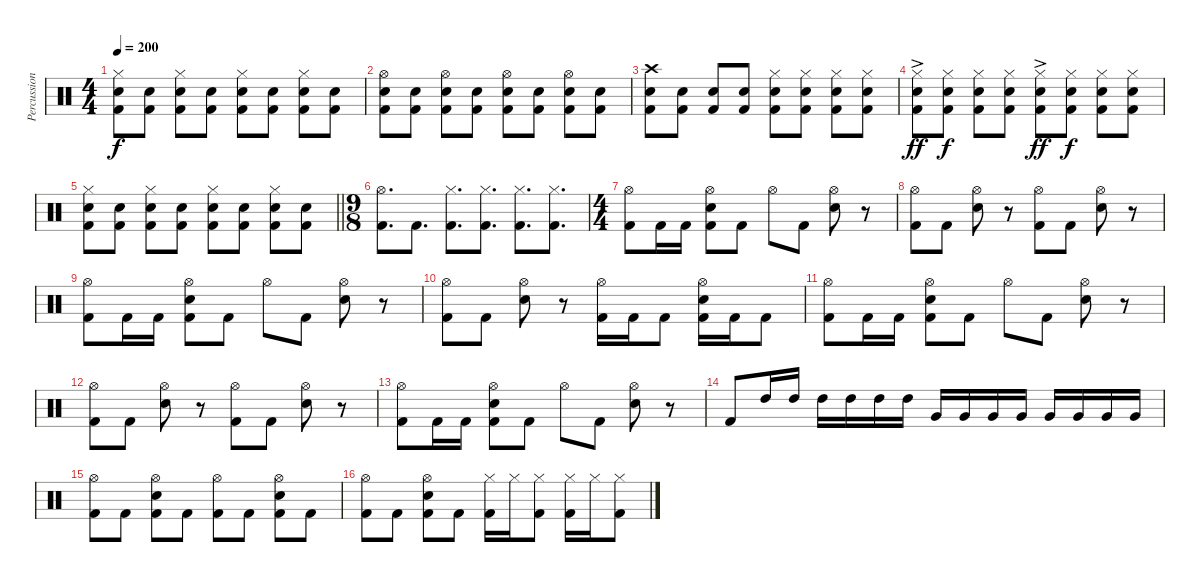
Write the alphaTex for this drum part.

\track ("Percussions" "Percussion") {instrument percussion}
\staff {score}
\articulation defaults
\ts (4 4)
\tempo 200
\clef neutral
\ks c
("Hi-Hat (closed)" "Electric Snare (hit)" "Kick (hit) 2").8{dy f} ("Electric Snare (hit)" "Kick (hit) 2").8 ("Hi-Hat (closed)" "Electric Snare (hit)" "Kick (hit) 2").8 ("Electric Snare (hit)" "Kick (hit) 2").8 ("Hi-Hat (closed)" "Electric Snare (hit)" "Kick (hit) 2").8 ("Electric Snare (hit)" "Kick (hit) 2").8 ("Hi-Hat (closed)" "Electric Snare (hit)" "Kick (hit) 2").8 ("Electric Snare (hit)" "Kick (hit) 2").8 |
("Hi-Hat (open)" "Electric Snare (hit)" "Kick (hit) 2").8 ("Electric Snare (hit)" "Kick (hit) 2").8 ("Hi-Hat (open)" "Electric Snare (hit)" "Kick (hit) 2").8 ("Electric Snare (hit)" "Kick (hit) 2").8 ("Hi-Hat (open)" "Electric Snare (hit)" "Kick (hit) 2").8 ("Electric Snare (hit)" "Kick (hit) 2").8 ("Hi-Hat (open)" "Electric Snare (hit)" "Kick (hit) 2").8 ("Electric Snare (hit)" "Kick (hit) 2").8 |
("Crash high (hit)" "Electric Snare (hit)" "Kick (hit) 2").8 ("Electric Snare (hit)" "Kick (hit) 2").8 ("Electric Snare (hit)" "Kick (hit) 2").8 ("Electric Snare (hit)" "Kick (hit) 2").8 ("Hi-Hat (closed)" "Electric Snare (hit)" "Kick (hit) 2").8 ("Hi-Hat (closed)" "Electric Snare (hit)" "Kick (hit) 2").8 ("Hi-Hat (closed)" "Electric Snare (hit)" "Kick (hit) 2").8 ("Hi-Hat (closed)" "Electric Snare (hit)" "Kick (hit) 2").8 |
("Hi-Hat (closed)"{ac} "Electric Snare (hit)" "Kick (hit) 2").8{dy ff} ("Hi-Hat (closed)" "Electric Snare (hit)" "Kick (hit) 2").8{dy f} ("Hi-Hat (closed)" "Electric Snare (hit)" "Kick (hit) 2").8 ("Hi-Hat (closed)" "Electric Snare (hit)" "Kick (hit) 2").8 ("Hi-Hat (closed)"{ac} "Electric Snare (hit)" "Kick (hit) 2").8{dy ff} ("Hi-Hat (closed)" "Electric Snare (hit)" "Kick (hit) 2").8{dy f} ("Hi-Hat (closed)" "Electric Snare (hit)" "Kick (hit) 2").8 ("Hi-Hat (closed)" "Electric Snare (hit)" "Kick (hit) 2").8 |
\barLineRight lightlight
("Hi-Hat (closed)" "Electric Snare (hit)" "Kick (hit) 2").8 ("Electric Snare (hit)" "Kick (hit) 2").8 ("Hi-Hat (closed)" "Electric Snare (hit)" "Kick (hit) 2").8 ("Electric Snare (hit)" "Kick (hit) 2").8 ("Hi-Hat (closed)" "Electric Snare (hit)" "Kick (hit) 2").8 ("Electric Snare (hit)" "Kick (hit) 2").8 ("Hi-Hat (closed)" "Electric Snare (hit)" "Kick (hit) 2").8 ("Electric Snare (hit)" "Kick (hit) 2").8 |
\ts (9 8)
("Hi-Hat (open)" "Kick (hit) 2").8{d} "Kick (hit) 2".8{d} ("Hi-Hat (closed)" "Kick (hit) 2").8{d} ("Hi-Hat (closed)" "Kick (hit) 2").8{d} ("Hi-Hat (closed)" "Kick (hit) 2").8{d} ("Hi-Hat (closed)" "Kick (hit) 2").8{d} |
\ts (4 4)
("Hi-Hat (open)" "Kick (hit) 2").8 "Kick (hit) 2".16 "Kick (hit) 2".16 ("Hi-Hat (open)" "Electric Snare (hit)" "Kick (hit) 2").8 "Kick (hit) 2".8 "Hi-Hat (open)".8 "Kick (hit) 2".8 ("Hi-Hat (open)" "Electric Snare (hit)").8 r.8 |
("Hi-Hat (open)" "Kick (hit) 2").8 "Kick (hit) 2".8 ("Hi-Hat (open)" "Electric Snare (hit)").8 r.8 ("Hi-Hat (open)" "Kick (hit) 2").8 "Kick (hit) 2".8 ("Hi-Hat (open)" "Electric Snare (hit)").8 r.8 |
("Hi-Hat (open)" "Kick (hit) 2").8 "Kick (hit) 2".16 "Kick (hit) 2".16 ("Hi-Hat (open)" "Electric Snare (hit)" "Kick (hit) 2").8 "Kick (hit) 2".8 "Hi-Hat (open)".8 "Kick (hit) 2".8 ("Hi-Hat (open)" "Electric Snare (hit)").8 r.8 |
("Hi-Hat (open)" "Kick (hit) 2").8 "Kick (hit) 2".8 ("Hi-Hat (open)" "Electric Snare (hit)").8 r.8 ("Hi-Hat (open)" "Kick (hit) 2").16 "Kick (hit) 2".16 "Kick (hit) 2".8 ("Hi-Hat (open)" "Electric Snare (hit)" "Kick (hit) 2").16 "Kick (hit) 2".16 "Kick (hit) 2".8 |
("Hi-Hat (open)" "Kick (hit) 2").8 "Kick (hit) 2".16 "Kick (hit) 2".16 ("Hi-Hat (open)" "Electric Snare (hit)" "Kick (hit) 2").8 "Kick (hit) 2".8 "Hi-Hat (open)".8 "Kick (hit) 2".8 ("Hi-Hat (open)" "Electric Snare (hit)").8 r.8 |
("Hi-Hat (open)" "Kick (hit) 2").8 "Kick (hit) 2".8 ("Hi-Hat (open)" "Electric Snare (hit)").8 r.8 ("Hi-Hat (open)" "Kick (hit) 2").8 "Kick (hit) 2".8 ("Hi-Hat (open)" "Electric Snare (hit)").8 r.8 |
("Hi-Hat (open)" "Kick (hit) 2").8 "Kick (hit) 2".16 "Kick (hit) 2".16 ("Hi-Hat (open)" "Electric Snare (hit)" "Kick (hit) 2").8 "Kick (hit) 2".8 "Hi-Hat (open)".8 "Kick (hit) 2".8 ("Hi-Hat (open)" "Electric Snare (hit)").8 r.8 |
"Kick (hit) 2".8 "High Tom (hit)".16 "High Tom (hit)".16 "High Tom (hit)".16 "High Tom (hit)".16 "High Tom (hit)".16 "High Tom (hit)".16 "Very Low Tom (hit)".16 "Very Low Tom (hit)".16 "Very Low Tom (hit)".16 "Very Low Tom (hit)".16 "Very Low Tom (hit)".16 "Very Low Tom (hit)".16 "Very Low Tom (hit)".16 "Very Low Tom (hit)".16 |
("Hi-Hat (open)" "Kick (hit) 2").8 "Kick (hit) 2".8 ("Hi-Hat (open)" "Electric Snare (hit)" "Kick (hit) 2").8 "Kick (hit) 2".8 ("Hi-Hat (open)" "Kick (hit) 2").8 "Kick (hit) 2".8 ("Hi-Hat (open)" "Electric Snare (hit)" "Kick (hit) 2").8 "Kick (hit) 2".8 |
("Hi-Hat (open)" "Kick (hit) 2").8 "Kick (hit) 2".8 ("Hi-Hat (open)" "Electric Snare (hit)" "Kick (hit) 2").8 "Kick (hit) 2".8 ("Hi-Hat (closed)" "Kick (hit) 2").16 "Hi-Hat (closed)".16 ("Hi-Hat (closed)" "Kick (hit) 2").8 ("Hi-Hat (closed)" "Kick (hit) 2").16 "Hi-Hat (closed)".16 ("Hi-Hat (closed)" "Kick (hit) 2").8
